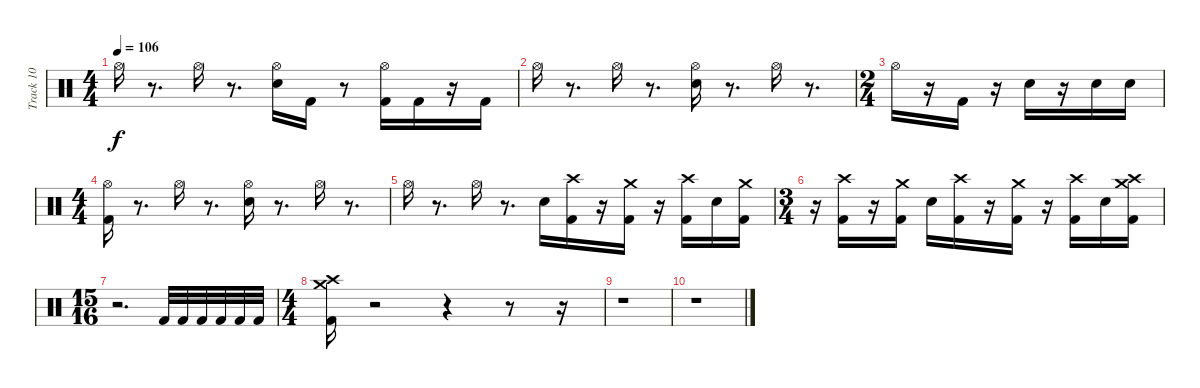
\track ("Track 10" "Track 10") {instrument percussion}
\staff {score}
\articulation defaults
\ts (4 4)
\tempo 106
\clef neutral
\ks c "Hi-Hat (open)".16{dy f}
r.8{d} "Hi-Hat (open)".16 r.8{d} ("Snare (hit) 2" "Hi-Hat (open)").16 "Kick (hit) 2".16 r.8 ("Kick (hit) 2" "Hi-Hat (open)").16 "Kick (hit) 2".16 r.16 "Kick (hit) 2".16 |
"Hi-Hat (open)".16 r.8{d} "Hi-Hat (open)".16 r.8{d} ("Snare (hit) 2" "Hi-Hat (open)").16 r.8{d} "Hi-Hat (open)".16 r.8{d} |
\ts (2 4)
"Hi-Hat (open)".16 r.16 "Kick (hit) 2".16 r.16 "Snare (hit) 2".16 r.16 "Snare (hit) 2".16 "Snare (hit) 2".16 |
\ts (4 4)
("Kick (hit) 2" "Hi-Hat (open)").16 r.8{d} "Hi-Hat (open)".16 r.8{d} ("Snare (hit) 2" "Hi-Hat (open)").16 r.8{d} "Hi-Hat (open)".16 r.8{d} |
"Hi-Hat (open)".16 r.8{d} "Hi-Hat (open)".16 r.8{d} "Snare (hit) 2".16 ("Kick (hit) 2" "Crash high (hit)").16 r.16 ("Kick (hit) 2" "Crash medium (hit)").16 r.16 ("Kick (hit) 2" "Crash high (hit)").16 "Snare (hit) 2".16 ("Kick (hit) 2" "Crash medium (hit)").16 |
\ts (3 4)
r.16 ("Kick (hit) 2" "Crash high (hit)").16 r.16 ("Kick (hit) 2" "Crash medium (hit)").16 "Snare (hit) 2".16 ("Kick (hit) 2" "Crash high (hit)").16 r.16 ("Kick (hit) 2" "Crash medium (hit)").16 r.16 ("Kick (hit) 2" "Crash high (hit)").16 "Snare (hit) 2".16 ("Kick (hit) 2" "Crash high (hit)" "Crash medium (hit)").16 |
\ts (15 16)
r.2{d} "Kick (hit) 2".32 "Kick (hit) 2".32 "Kick (hit) 2".32 "Kick (hit) 2".32 "Kick (hit) 2".32 "Kick (hit) 2".32 |
\ts (4 4)
("Kick (hit) 2" "Crash high (hit)" "Crash medium (hit)").16 r.2 r.4 r.8 r.16 |
r.1 |
r.1
